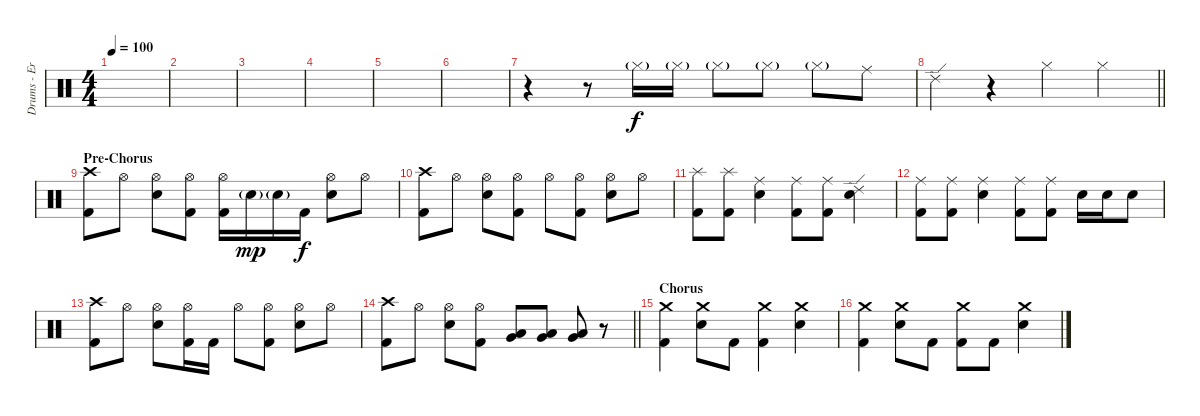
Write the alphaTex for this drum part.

\track ("Drums - Eric Young" "Drums - Er") {instrument percussion}
\staff {score}
\articulation defaults
\ts (4 4)
\tempo 100
\clef neutral
\ks c
|
|
|
|
|
|
r.4 r.8 "Hi-Hat (closed)"{g}.16 "Hi-Hat (closed)"{g}.16 "Hi-Hat (closed)"{g}.8 "Hi-Hat (closed)"{g}.8 "Hi-Hat (closed)"{g}.8 "Ride (middle)".8{dy f} |
\barLineRight lightlight "Ride (edge) 2".4
r.4 "Hi-Hat (closed)".4 "Hi-Hat (closed)".4 |
\section ("" "Pre-Chorus")
("Crash high (hit)" "Kick (hit) 2").8 "Hi-Hat (open)".8 ("Hi-Hat (open)" "Electric Snare (hit)").8 ("Hi-Hat (open)" "Kick (hit) 2").8 ("Hi-Hat (open)" "Kick (hit) 2").16 "Electric Snare (hit)"{g}.16{dy mp} "Electric Snare (hit)"{g}.16 "Kick (hit) 2".16{dy f} ("Hi-Hat (open)" "Electric Snare (hit)").8 "Hi-Hat (open)".8 |
("Crash high (hit)" "Kick (hit) 2").8 "Hi-Hat (open)".8 ("Hi-Hat (open)" "Electric Snare (hit)").8 ("Hi-Hat (open)" "Kick (hit) 2").8 "Hi-Hat (open)".8 ("Hi-Hat (open)" "Kick (hit) 2").8 ("Hi-Hat (open)" "Electric Snare (hit)").8 "Hi-Hat (open)".8 |
("Splash (hit)" "Kick (hit) 2").8 ("Splash (hit)" "Kick (hit) 2").8 ("Ride (middle)" "Electric Snare (hit)").4 ("Ride (middle)" "Kick (hit) 2").8 ("Ride (middle)" "Kick (hit) 2").8 ("Ride (edge) 2" "Electric Snare (hit)").4 |
("Ride (middle)" "Kick (hit) 2").8 ("Ride (middle)" "Kick (hit) 2").8 ("Ride (middle)" "Electric Snare (hit)").4 ("Ride (middle)" "Kick (hit) 2").8 ("Ride (middle)" "Kick (hit) 2").8 "Electric Snare (hit)".16 "Electric Snare (hit)".16 "Electric Snare (hit)".8 |
("Crash high (hit)" "Kick (hit) 2").8 "Hi-Hat (open)".8 ("Hi-Hat (open)" "Electric Snare (hit)").8 ("Hi-Hat (open)" "Kick (hit) 2").16 "Kick (hit) 2".16 "Hi-Hat (open)".8 ("Hi-Hat (open)" "Kick (hit) 2").8 ("Hi-Hat (open)" "Electric Snare (hit)").8 "Hi-Hat (open)".8 |
\barLineRight lightlight
("Crash high (hit)" "Kick (hit) 2").8 "Hi-Hat (open)".8 ("Hi-Hat (open)" "Electric Snare (hit)").8 ("Hi-Hat (open)" "Kick (hit) 2").8 ("Low Tom (hit)" "Very Low Tom (hit)").8 ("Low Tom (hit)" "Very Low Tom (hit)").8 ("Low Tom (hit)" "Very Low Tom (hit)").8 r.8 |
\section ("" "Chorus")
("Crash medium (hit)" "Kick (hit) 2").4 ("Crash medium (hit)" "Electric Snare (hit)").8 "Kick (hit) 2".8 ("Crash medium (hit)" "Kick (hit) 2").4 ("Crash medium (hit)" "Electric Snare (hit)").4 |
("Crash medium (hit)" "Kick (hit) 2").4 ("Crash medium (hit)" "Electric Snare (hit)").8 "Kick (hit) 2".8 ("Crash medium (hit)" "Kick (hit) 2").8 "Kick (hit) 2".8 ("Crash medium (hit)" "Electric Snare (hit)").4
